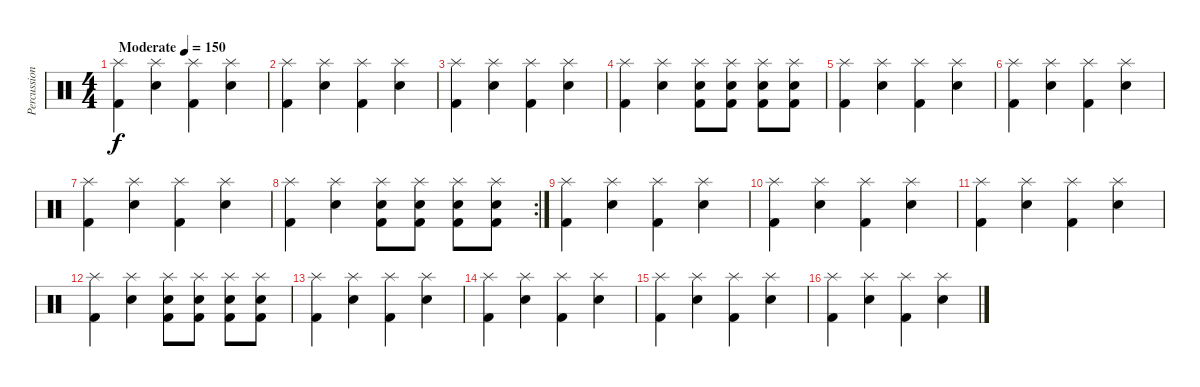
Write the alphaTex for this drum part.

\track ("Percussion" "Percussion") {instrument percussion}
\staff {score}
\articulation defaults
\ts (4 4)
\tempo (150 "Moderate")
\clef neutral
\ks c
("Splash (hit)" "Kick (hit) 2").4{dy f} ("Splash (hit)" "Electric Snare (hit)").4 ("Splash (hit)" "Kick (hit) 2").4 ("Splash (hit)" "Electric Snare (hit)").4 |
("Splash (hit)" "Kick (hit) 2").4 ("Splash (hit)" "Electric Snare (hit)").4 ("Splash (hit)" "Kick (hit) 2").4 ("Splash (hit)" "Electric Snare (hit)").4 |
("Splash (hit)" "Kick (hit) 2").4 ("Splash (hit)" "Electric Snare (hit)").4 ("Splash (hit)" "Kick (hit) 2").4 ("Splash (hit)" "Electric Snare (hit)").4 |
("Splash (hit)" "Kick (hit) 2").4 ("Splash (hit)" "Electric Snare (hit)").4 ("Splash (hit)" "Electric Snare (hit)" "Kick (hit) 2").8 ("Splash (hit)" "Electric Snare (hit)" "Kick (hit) 2").8 ("Splash (hit)" "Electric Snare (hit)" "Kick (hit) 2").8 ("Splash (hit)" "Electric Snare (hit)" "Kick (hit) 2").8 |
("Splash (hit)" "Kick (hit) 2").4 ("Splash (hit)" "Electric Snare (hit)").4 ("Splash (hit)" "Kick (hit) 2").4 ("Splash (hit)" "Electric Snare (hit)").4 |
("Splash (hit)" "Kick (hit) 2").4 ("Splash (hit)" "Electric Snare (hit)").4 ("Splash (hit)" "Kick (hit) 2").4 ("Splash (hit)" "Electric Snare (hit)").4 |
("Splash (hit)" "Kick (hit) 2").4 ("Splash (hit)" "Electric Snare (hit)").4 ("Splash (hit)" "Kick (hit) 2").4 ("Splash (hit)" "Electric Snare (hit)").4 |
\rc 2
("Splash (hit)" "Kick (hit) 2").4 ("Splash (hit)" "Electric Snare (hit)").4 ("Splash (hit)" "Electric Snare (hit)" "Kick (hit) 2").8 ("Splash (hit)" "Electric Snare (hit)" "Kick (hit) 2").8 ("Splash (hit)" "Electric Snare (hit)" "Kick (hit) 2").8 ("Splash (hit)" "Electric Snare (hit)" "Kick (hit) 2").8 |
("Splash (hit)" "Kick (hit) 2").4 ("Splash (hit)" "Electric Snare (hit)").4 ("Splash (hit)" "Kick (hit) 2").4 ("Splash (hit)" "Electric Snare (hit)").4 |
("Splash (hit)" "Kick (hit) 2").4 ("Splash (hit)" "Electric Snare (hit)").4 ("Splash (hit)" "Kick (hit) 2").4 ("Splash (hit)" "Electric Snare (hit)").4 |
("Splash (hit)" "Kick (hit) 2").4 ("Splash (hit)" "Electric Snare (hit)").4 ("Splash (hit)" "Kick (hit) 2").4 ("Splash (hit)" "Electric Snare (hit)").4 |
("Splash (hit)" "Kick (hit) 2").4 ("Splash (hit)" "Electric Snare (hit)").4 ("Splash (hit)" "Electric Snare (hit)" "Kick (hit) 2").8 ("Splash (hit)" "Electric Snare (hit)" "Kick (hit) 2").8 ("Splash (hit)" "Electric Snare (hit)" "Kick (hit) 2").8 ("Splash (hit)" "Electric Snare (hit)" "Kick (hit) 2").8 |
("Splash (hit)" "Kick (hit) 2").4 ("Splash (hit)" "Electric Snare (hit)").4 ("Splash (hit)" "Kick (hit) 2").4 ("Splash (hit)" "Electric Snare (hit)").4 |
("Splash (hit)" "Kick (hit) 2").4 ("Splash (hit)" "Electric Snare (hit)").4 ("Splash (hit)" "Kick (hit) 2").4 ("Splash (hit)" "Electric Snare (hit)").4 |
("Splash (hit)" "Kick (hit) 2").4 ("Splash (hit)" "Electric Snare (hit)").4 ("Splash (hit)" "Kick (hit) 2").4 ("Splash (hit)" "Electric Snare (hit)").4 |
("Splash (hit)" "Kick (hit) 2").4 ("Splash (hit)" "Electric Snare (hit)").4 ("Splash (hit)" "Kick (hit) 2").4 ("Splash (hit)" "Electric Snare (hit)").4
